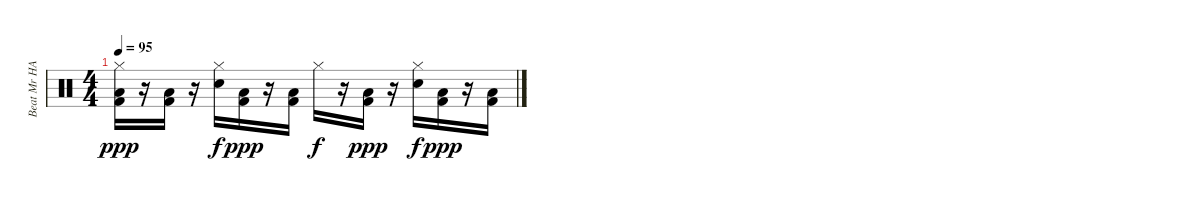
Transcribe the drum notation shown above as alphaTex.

\track ("Beat Mr HAHN" "Beat Mr HA") {instrument percussion}
\staff {score}
\articulation defaults
\ts (4 4)
\tempo 95
\clef neutral
\ks c
("Hi-Hat (closed)" "Low Floor Tom (hit)" "Kick (hit) 2").16{dy ppp} r.16 ("Low Floor Tom (hit)" "Kick (hit) 2").16 r.16 ("Hi-Hat (closed)" "Electric Snare (hit)").16{dy f} ("Low Floor Tom (hit)" "Kick (hit) 2").16{dy ppp} r.16 ("Low Floor Tom (hit)" "Kick (hit) 2").16 "Hi-Hat (closed)".16{dy f} r.16 ("Low Floor Tom (hit)" "Kick (hit) 2").16{dy ppp} r.16 ("Hi-Hat (closed)" "Electric Snare (hit)").16{dy f} ("Low Floor Tom (hit)" "Kick (hit) 2").16{dy ppp} r.16 ("Low Floor Tom (hit)" "Kick (hit) 2").16
